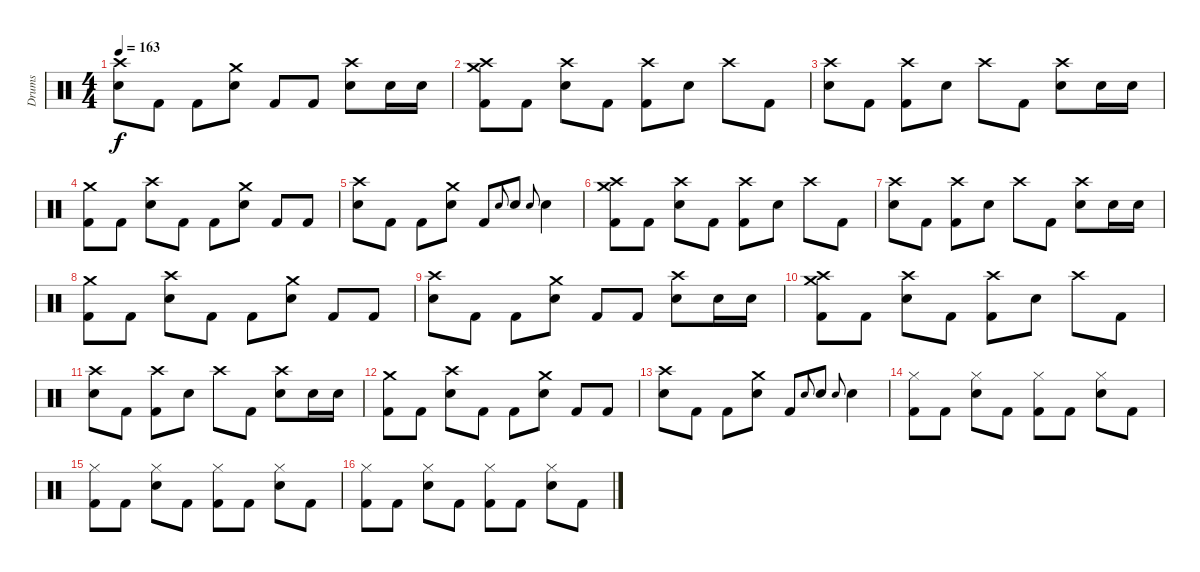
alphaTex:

\track ("Drums" "Drums") {instrument percussion}
\staff {score}
\articulation defaults
\ts (4 4)
\tempo 163
\clef neutral
\ks c
("Crash high (hit)" "Electric Snare (hit)").8{dy f} "Kick (hit) 2".8 "Kick (hit) 2".8 ("Crash medium (hit)" "Electric Snare (hit)").8 "Kick (hit) 2".8 "Kick (hit) 2".8 ("Crash high (hit)" "Electric Snare (hit)").8 "Electric Snare (hit)".16 "Electric Snare (hit)".16 |
("Crash high (hit)" "Crash medium (hit)" "Kick (hit) 2").8 "Kick (hit) 2".8 ("Crash high (hit)" "Electric Snare (hit)").8 "Kick (hit) 2".8 ("Crash high (hit)" "Kick (hit) 2").8 "Electric Snare (hit)".8 "Crash high (hit)".8 "Kick (hit) 2".8 |
("Crash high (hit)" "Electric Snare (hit)").8 "Kick (hit) 2".8 ("Crash high (hit)" "Kick (hit) 2").8 "Electric Snare (hit)".8 "Crash high (hit)".8 "Kick (hit) 2".8 ("Crash high (hit)" "Electric Snare (hit)").8 "Electric Snare (hit)".16 "Electric Snare (hit)".16 |
("Crash medium (hit)" "Kick (hit) 2").8 "Kick (hit) 2".8 ("Crash high (hit)" "Electric Snare (hit)").8 "Kick (hit) 2".8 "Kick (hit) 2".8 ("Crash medium (hit)" "Electric Snare (hit)").8 "Kick (hit) 2".8 "Kick (hit) 2".8 |
("Crash high (hit)" "Electric Snare (hit)").8 "Kick (hit) 2".8 "Kick (hit) 2".8 ("Crash medium (hit)" "Electric Snare (hit)").8 "Kick (hit) 2".8 "Electric Snare (hit)".8{gr onbeat} "Electric Snare (hit)".8 "Electric Snare (hit)".8{gr onbeat} "Electric Snare (hit)".4 |
("Crash high (hit)" "Crash medium (hit)" "Kick (hit) 2").8 "Kick (hit) 2".8 ("Crash high (hit)" "Electric Snare (hit)").8 "Kick (hit) 2".8 ("Crash high (hit)" "Kick (hit) 2").8 "Electric Snare (hit)".8 "Crash high (hit)".8 "Kick (hit) 2".8 |
("Crash high (hit)" "Electric Snare (hit)").8 "Kick (hit) 2".8 ("Crash high (hit)" "Kick (hit) 2").8 "Electric Snare (hit)".8 "Crash high (hit)".8 "Kick (hit) 2".8 ("Crash high (hit)" "Electric Snare (hit)").8 "Electric Snare (hit)".16 "Electric Snare (hit)".16 |
("Crash medium (hit)" "Kick (hit) 2").8 "Kick (hit) 2".8 ("Crash high (hit)" "Electric Snare (hit)").8 "Kick (hit) 2".8 "Kick (hit) 2".8 ("Crash medium (hit)" "Electric Snare (hit)").8 "Kick (hit) 2".8 "Kick (hit) 2".8 |
("Crash high (hit)" "Electric Snare (hit)").8 "Kick (hit) 2".8 "Kick (hit) 2".8 ("Crash medium (hit)" "Electric Snare (hit)").8 "Kick (hit) 2".8 "Kick (hit) 2".8 ("Crash high (hit)" "Electric Snare (hit)").8 "Electric Snare (hit)".16 "Electric Snare (hit)".16 |
("Crash high (hit)" "Crash medium (hit)" "Kick (hit) 2").8 "Kick (hit) 2".8 ("Crash high (hit)" "Electric Snare (hit)").8 "Kick (hit) 2".8 ("Crash high (hit)" "Kick (hit) 2").8 "Electric Snare (hit)".8 "Crash high (hit)".8 "Kick (hit) 2".8 |
("Crash high (hit)" "Electric Snare (hit)").8 "Kick (hit) 2".8 ("Crash high (hit)" "Kick (hit) 2").8 "Electric Snare (hit)".8 "Crash high (hit)".8 "Kick (hit) 2".8 ("Crash high (hit)" "Electric Snare (hit)").8 "Electric Snare (hit)".16 "Electric Snare (hit)".16 |
("Crash medium (hit)" "Kick (hit) 2").8 "Kick (hit) 2".8 ("Crash high (hit)" "Electric Snare (hit)").8 "Kick (hit) 2".8 "Kick (hit) 2".8 ("Crash medium (hit)" "Electric Snare (hit)").8 "Kick (hit) 2".8 "Kick (hit) 2".8 |
("Crash high (hit)" "Electric Snare (hit)").8 "Kick (hit) 2".8 "Kick (hit) 2".8 ("Crash medium (hit)" "Electric Snare (hit)").8 "Kick (hit) 2".8 "Electric Snare (hit)".8{gr onbeat} "Electric Snare (hit)".8 "Electric Snare (hit)".8{gr onbeat} "Electric Snare (hit)".4 |
("Hi-Hat (closed)" "Kick (hit) 2").8 "Kick (hit) 2".8 ("Hi-Hat (closed)" "Electric Snare (hit)").8 "Kick (hit) 2".8 ("Hi-Hat (closed)" "Kick (hit) 2").8 "Kick (hit) 2".8 ("Hi-Hat (closed)" "Electric Snare (hit)").8 "Kick (hit) 2".8 |
("Hi-Hat (closed)" "Kick (hit) 2").8 "Kick (hit) 2".8 ("Hi-Hat (closed)" "Electric Snare (hit)").8 "Kick (hit) 2".8 ("Hi-Hat (closed)" "Kick (hit) 2").8 "Kick (hit) 2".8 ("Hi-Hat (closed)" "Electric Snare (hit)").8 "Kick (hit) 2".8 |
("Hi-Hat (closed)" "Kick (hit) 2").8 "Kick (hit) 2".8 ("Hi-Hat (closed)" "Electric Snare (hit)").8 "Kick (hit) 2".8 ("Hi-Hat (closed)" "Kick (hit) 2").8 "Kick (hit) 2".8 ("Hi-Hat (closed)" "Electric Snare (hit)").8 "Kick (hit) 2".8
